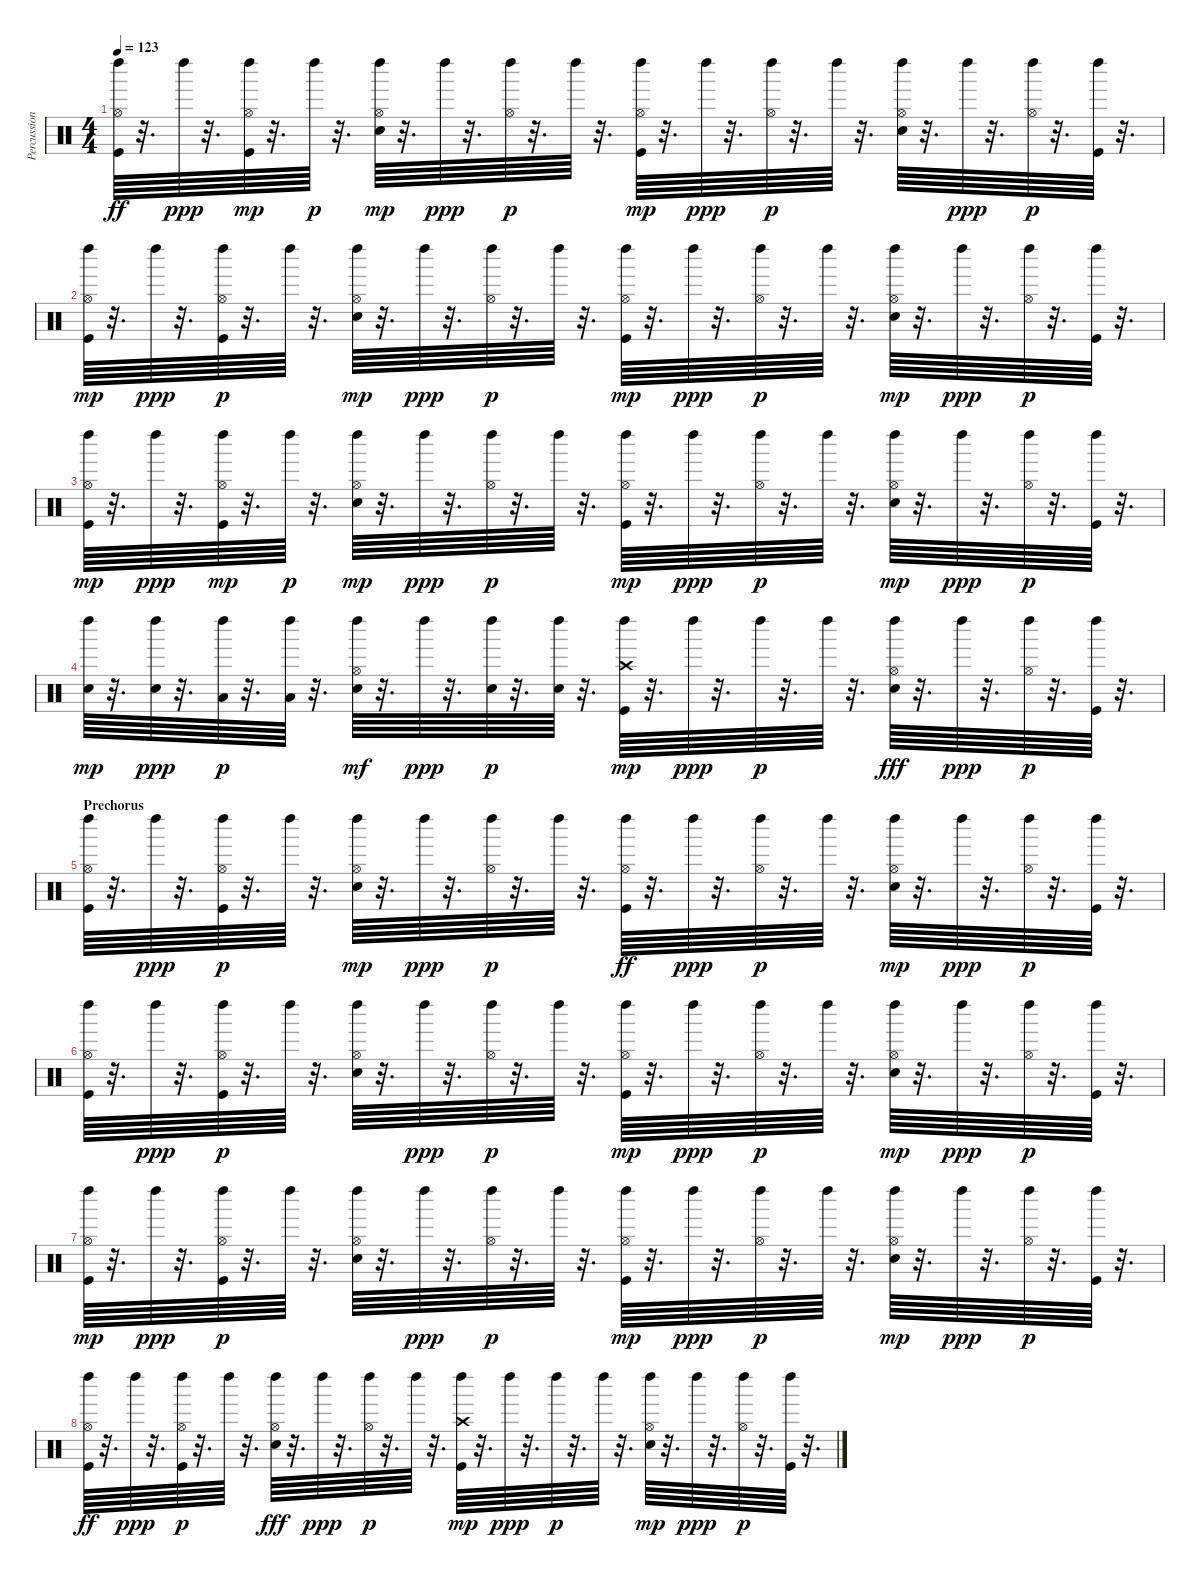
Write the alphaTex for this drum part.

\track ("Percussion" "Percussion") {instrument percussion}
\staff {score}
\articulation defaults
\ts (4 4)
\tempo 123
\clef neutral
\ks c
("Hi-Hat (open)" "Left Maraca (hit)" "Kick (hit)").64{dy ff} r.32{d} "Left Maraca (hit)".64{dy ppp} r.32{d} ("Hi-Hat (open)" "Left Maraca (hit)" "Kick (hit)").64{dy mp} r.32{d} "Left Maraca (hit)".64{dy p} r.32{d} ("Electric Snare (hit)" "Hi-Hat (open)" "Left Maraca (hit)").64{dy mp} r.32{d} "Left Maraca (hit)".64{dy ppp} r.32{d} ("Hi-Hat (open)" "Left Maraca (hit)").64{dy p} r.32{d} "Left Maraca (hit)".64 r.32{d} ("Kick (hit)" "Hi-Hat (open)" "Left Maraca (hit)").64{dy mp} r.32{d} "Left Maraca (hit)".64{dy ppp} r.32{d} ("Hi-Hat (open)" "Left Maraca (hit)").64{dy p} r.32{d} "Left Maraca (hit)".64 r.32{d} ("Left Maraca (hit)" "Electric Snare (hit)" "Hi-Hat (open)").64 r.32{d} "Left Maraca (hit)".64{dy ppp} r.32{d} ("Hi-Hat (open)" "Left Maraca (hit)").64{dy p} r.32{d} ("Kick (hit)" "Left Maraca (hit)").64 r.32{d} |
("Kick (hit)" "Hi-Hat (open)" "Left Maraca (hit)").64{dy mp} r.32{d} "Left Maraca (hit)".64{dy ppp} r.32{d} ("Left Maraca (hit)" "Kick (hit)" "Hi-Hat (open)").64{dy p} r.32{d} "Left Maraca (hit)".64 r.32{d} ("Electric Snare (hit)" "Hi-Hat (open)" "Left Maraca (hit)").64{dy mp} r.32{d} "Left Maraca (hit)".64{dy ppp} r.32{d} ("Hi-Hat (open)" "Left Maraca (hit)").64{dy p} r.32{d} "Left Maraca (hit)".64 r.32{d} ("Kick (hit)" "Hi-Hat (open)" "Left Maraca (hit)").64{dy mp} r.32{d} "Left Maraca (hit)".64{dy ppp} r.32{d} ("Hi-Hat (open)" "Left Maraca (hit)").64{dy p} r.32{d} "Left Maraca (hit)".64 r.32{d} ("Electric Snare (hit)" "Hi-Hat (open)" "Left Maraca (hit)").64{dy mp} r.32{d} "Left Maraca (hit)".64{dy ppp} r.32{d} ("Hi-Hat (open)" "Left Maraca (hit)").64{dy p} r.32{d} ("Kick (hit)" "Left Maraca (hit)").64 r.32{d} |
("Kick (hit)" "Hi-Hat (open)" "Left Maraca (hit)").64{dy mp} r.32{d} "Left Maraca (hit)".64{dy ppp} r.32{d} ("Hi-Hat (open)" "Left Maraca (hit)" "Kick (hit)").64{dy mp} r.32{d} "Left Maraca (hit)".64{dy p} r.32{d} ("Electric Snare (hit)" "Hi-Hat (open)" "Left Maraca (hit)").64{dy mp} r.32{d} "Left Maraca (hit)".64{dy ppp} r.32{d} ("Hi-Hat (open)" "Left Maraca (hit)").64{dy p} r.32{d} "Left Maraca (hit)".64 r.32{d} ("Kick (hit)" "Hi-Hat (open)" "Left Maraca (hit)").64{dy mp} r.32{d} "Left Maraca (hit)".64{dy ppp} r.32{d} ("Hi-Hat (open)" "Left Maraca (hit)").64{dy p} r.32{d} "Left Maraca (hit)".64 r.32{d} ("Electric Snare (hit)" "Hi-Hat (open)" "Left Maraca (hit)").64{dy mp} r.32{d} "Left Maraca (hit)".64{dy ppp} r.32{d} ("Hi-Hat (open)" "Left Maraca (hit)").64{dy p} r.32{d} ("Kick (hit)" "Left Maraca (hit)").64 r.32{d} |
("Electric Snare (hit)" "Left Maraca (hit)").64{dy mp} r.32{d} ("Electric Snare (hit)" "Left Maraca (hit)").64{dy ppp} r.32{d} ("Low Tom (hit)" "Left Maraca (hit)").64{dy p} r.32{d} ("Low Tom (hit)" "Left Maraca (hit)").64 r.32{d} ("Left Maraca (hit)" "Electric Snare (hit)" "Hi-Hat (open)").64{dy mf} r.32{d} "Left Maraca (hit)".64{dy ppp} r.32{d} ("Electric Snare (hit)" "Left Maraca (hit)").64{dy p} r.32{d} ("Electric Snare (hit)" "Left Maraca (hit)").64 r.32{d} ("Kick (hit)" "Crash high (hit)" "Left Maraca (hit)").64{dy mp} r.32{d} "Left Maraca (hit)".64{dy ppp} r.32{d} "Left Maraca (hit)".64{dy p} r.32{d} "Left Maraca (hit)".64 r.32{d} ("Hi-Hat (open)" "Left Maraca (hit)" "Electric Snare (hit)").64{dy fff} r.32{d} "Left Maraca (hit)".64{dy ppp} r.32{d} ("Hi-Hat (open)" "Left Maraca (hit)").64{dy p} r.32{d} ("Kick (hit)" "Left Maraca (hit)").64 r.32{d} |
\section ("" "Prechorus")
("Left Maraca (hit)" "Kick (hit)" "Hi-Hat (open)").64 r.32{d} "Left Maraca (hit)".64{dy ppp} r.32{d} ("Kick (hit)" "Hi-Hat (open)" "Left Maraca (hit)").64{dy p} r.32{d} "Left Maraca (hit)".64 r.32{d} ("Electric Snare (hit)" "Hi-Hat (open)" "Left Maraca (hit)").64{dy mp} r.32{d} "Left Maraca (hit)".64{dy ppp} r.32{d} ("Hi-Hat (open)" "Left Maraca (hit)").64{dy p} r.32{d} "Left Maraca (hit)".64 r.32{d} ("Hi-Hat (open)" "Left Maraca (hit)" "Kick (hit)").64{dy ff} r.32{d} "Left Maraca (hit)".64{dy ppp} r.32{d} ("Hi-Hat (open)" "Left Maraca (hit)").64{dy p} r.32{d} "Left Maraca (hit)".64 r.32{d} ("Electric Snare (hit)" "Hi-Hat (open)" "Left Maraca (hit)").64{dy mp} r.32{d} "Left Maraca (hit)".64{dy ppp} r.32{d} ("Hi-Hat (open)" "Left Maraca (hit)").64{dy p} r.32{d} ("Kick (hit)" "Left Maraca (hit)").64 r.32{d} |
("Left Maraca (hit)" "Kick (hit)" "Hi-Hat (open)").64 r.32{d} "Left Maraca (hit)".64{dy ppp} r.32{d} ("Kick (hit)" "Hi-Hat (open)" "Left Maraca (hit)").64{dy p} r.32{d} "Left Maraca (hit)".64 r.32{d} ("Left Maraca (hit)" "Electric Snare (hit)" "Hi-Hat (open)").64 r.32{d} "Left Maraca (hit)".64{dy ppp} r.32{d} ("Hi-Hat (open)" "Left Maraca (hit)").64{dy p} r.32{d} "Left Maraca (hit)".64 r.32{d} ("Kick (hit)" "Hi-Hat (open)" "Left Maraca (hit)").64{dy mp} r.32{d} "Left Maraca (hit)".64{dy ppp} r.32{d} ("Hi-Hat (open)" "Left Maraca (hit)").64{dy p} r.32{d} "Left Maraca (hit)".64 r.32{d} ("Electric Snare (hit)" "Hi-Hat (open)" "Left Maraca (hit)").64{dy mp} r.32{d} "Left Maraca (hit)".64{dy ppp} r.32{d} ("Hi-Hat (open)" "Left Maraca (hit)").64{dy p} r.32{d} ("Kick (hit)" "Left Maraca (hit)").64 r.32{d} |
("Kick (hit)" "Hi-Hat (open)" "Left Maraca (hit)").64{dy mp} r.32{d} "Left Maraca (hit)".64{dy ppp} r.32{d} ("Kick (hit)" "Hi-Hat (open)" "Left Maraca (hit)").64{dy p} r.32{d} "Left Maraca (hit)".64 r.32{d} ("Left Maraca (hit)" "Electric Snare (hit)" "Hi-Hat (open)").64 r.32{d} "Left Maraca (hit)".64{dy ppp} r.32{d} ("Hi-Hat (open)" "Left Maraca (hit)").64{dy p} r.32{d} "Left Maraca (hit)".64 r.32{d} ("Kick (hit)" "Hi-Hat (open)" "Left Maraca (hit)").64{dy mp} r.32{d} "Left Maraca (hit)".64{dy ppp} r.32{d} ("Hi-Hat (open)" "Left Maraca (hit)").64{dy p} r.32{d} "Left Maraca (hit)".64 r.32{d} ("Electric Snare (hit)" "Hi-Hat (open)" "Left Maraca (hit)").64{dy mp} r.32{d} "Left Maraca (hit)".64{dy ppp} r.32{d} ("Hi-Hat (open)" "Left Maraca (hit)").64{dy p} r.32{d} ("Kick (hit)" "Left Maraca (hit)").64 r.32{d} |
("Hi-Hat (open)" "Left Maraca (hit)" "Kick (hit)").64{dy ff} r.32{d} "Left Maraca (hit)".64{dy ppp} r.32{d} ("Kick (hit)" "Hi-Hat (open)" "Left Maraca (hit)").64{dy p} r.32{d} "Left Maraca (hit)".64 r.32{d} ("Hi-Hat (open)" "Left Maraca (hit)" "Electric Snare (hit)").64{dy fff} r.32{d} "Left Maraca (hit)".64{dy ppp} r.32{d} ("Hi-Hat (open)" "Left Maraca (hit)").64{dy p} r.32{d} "Left Maraca (hit)".64 r.32{d} ("Kick (hit)" "Crash high (hit)" "Left Maraca (hit)").64{dy mp} r.32{d} "Left Maraca (hit)".64{dy ppp} r.32{d} "Left Maraca (hit)".64{dy p} r.32{d} "Left Maraca (hit)".64 r.32{d} ("Electric Snare (hit)" "Hi-Hat (open)" "Left Maraca (hit)").64{dy mp} r.32{d} "Left Maraca (hit)".64{dy ppp} r.32{d} ("Hi-Hat (open)" "Left Maraca (hit)").64{dy p} r.32{d} ("Kick (hit)" "Left Maraca (hit)").64 r.32{d}
